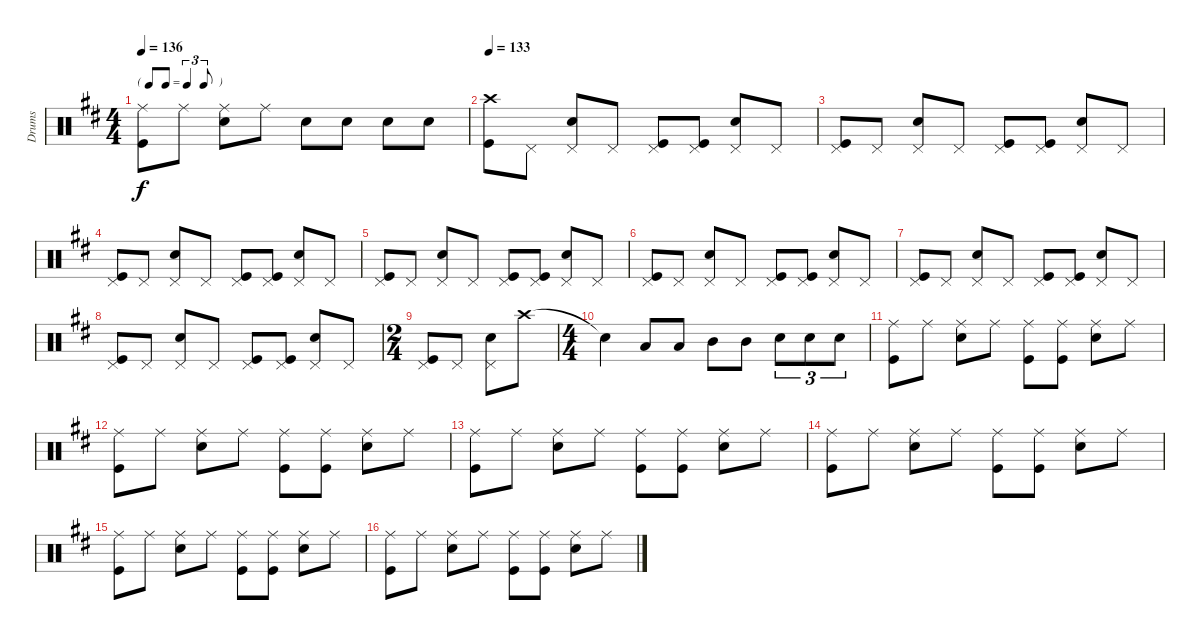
\track ("Drums" "Drums") {instrument percussion}
\staff {score}
\articulation defaults
\ts (4 4)
\tf triplet8th
\tempo 136
\clef neutral
\ks d
("Ride (middle)" "Kick (hit)").8{dy f} "Ride (middle)".8 ("Ride (middle)" "Snare (hit) 2").8 "Ride (middle)".8 "Snare (hit) 2".8 "Snare (hit) 2".8 "Snare (hit) 2".8 "Snare (hit) 2".8 |
\tempo 133
("Crash high (hit)" "Kick (hit)").8 "Pedal Hi-Hat (hit)".8 ("Pedal Hi-Hat (hit)" "Snare (hit) 2").8 "Pedal Hi-Hat (hit)".8 ("Pedal Hi-Hat (hit)" "Kick (hit)").8 ("Pedal Hi-Hat (hit)" "Kick (hit)").8 ("Pedal Hi-Hat (hit)" "Snare (hit) 2").8 "Pedal Hi-Hat (hit)".8 |
("Pedal Hi-Hat (hit)" "Kick (hit)").8 "Pedal Hi-Hat (hit)".8 ("Pedal Hi-Hat (hit)" "Snare (hit) 2").8 "Pedal Hi-Hat (hit)".8 ("Pedal Hi-Hat (hit)" "Kick (hit)").8 ("Pedal Hi-Hat (hit)" "Kick (hit)").8 ("Pedal Hi-Hat (hit)" "Snare (hit) 2").8 "Pedal Hi-Hat (hit)".8 |
("Pedal Hi-Hat (hit)" "Kick (hit)").8 "Pedal Hi-Hat (hit)".8 ("Pedal Hi-Hat (hit)" "Snare (hit) 2").8 "Pedal Hi-Hat (hit)".8 ("Pedal Hi-Hat (hit)" "Kick (hit)").8 ("Pedal Hi-Hat (hit)" "Kick (hit)").8 ("Pedal Hi-Hat (hit)" "Snare (hit) 2").8 "Pedal Hi-Hat (hit)".8 |
("Pedal Hi-Hat (hit)" "Kick (hit)").8 "Pedal Hi-Hat (hit)".8 ("Pedal Hi-Hat (hit)" "Snare (hit) 2").8 "Pedal Hi-Hat (hit)".8 ("Pedal Hi-Hat (hit)" "Kick (hit)").8 ("Pedal Hi-Hat (hit)" "Kick (hit)").8 ("Pedal Hi-Hat (hit)" "Snare (hit) 2").8 "Pedal Hi-Hat (hit)".8 |
("Pedal Hi-Hat (hit)" "Kick (hit)").8 "Pedal Hi-Hat (hit)".8 ("Pedal Hi-Hat (hit)" "Snare (hit) 2").8 "Pedal Hi-Hat (hit)".8 ("Pedal Hi-Hat (hit)" "Kick (hit)").8 ("Pedal Hi-Hat (hit)" "Kick (hit)").8 ("Pedal Hi-Hat (hit)" "Snare (hit) 2").8 "Pedal Hi-Hat (hit)".8 |
("Pedal Hi-Hat (hit)" "Kick (hit)").8 "Pedal Hi-Hat (hit)".8 ("Pedal Hi-Hat (hit)" "Snare (hit) 2").8 "Pedal Hi-Hat (hit)".8 ("Pedal Hi-Hat (hit)" "Kick (hit)").8 ("Pedal Hi-Hat (hit)" "Kick (hit)").8 ("Pedal Hi-Hat (hit)" "Snare (hit) 2").8 "Pedal Hi-Hat (hit)".8 |
("Pedal Hi-Hat (hit)" "Kick (hit)").8 "Pedal Hi-Hat (hit)".8 ("Pedal Hi-Hat (hit)" "Snare (hit) 2").8 "Pedal Hi-Hat (hit)".8 ("Pedal Hi-Hat (hit)" "Kick (hit)").8 ("Pedal Hi-Hat (hit)" "Kick (hit)").8 ("Pedal Hi-Hat (hit)" "Snare (hit) 2").8 "Pedal Hi-Hat (hit)".8 |
\ts (2 4)
("Pedal Hi-Hat (hit)" "Kick (hit)").8 "Pedal Hi-Hat (hit)".8 ("Pedal Hi-Hat (hit)" "Snare (hit) 2").8 "Crash high (hit)".8 |
\ts (4 4)
"Snare (hit)"{t}.4 "Low Tom (hit)".8 "Low Tom (hit)".8 "Mid Tom (hit)".8 "Mid Tom (hit)".8 "Snare (hit) 2".8{tu (3 2)} "Snare (hit) 2".8{tu (3 2)} "Snare (hit) 2".8{tu (3 2)} |
("Ride (middle)" "Kick (hit)").8 "Ride (middle)".8 ("Ride (middle)" "Snare (hit) 2").8 "Ride (middle)".8 ("Ride (middle)" "Kick (hit)").8 ("Ride (middle)" "Kick (hit)").8 ("Ride (middle)" "Snare (hit) 2").8 "Ride (middle)".8 |
("Ride (middle)" "Kick (hit)").8 "Ride (middle)".8 ("Ride (middle)" "Snare (hit) 2").8 "Ride (middle)".8 ("Ride (middle)" "Kick (hit)").8 ("Ride (middle)" "Kick (hit)").8 ("Ride (middle)" "Snare (hit) 2").8 "Ride (middle)".8 |
("Ride (middle)" "Kick (hit)").8 "Ride (middle)".8 ("Ride (middle)" "Snare (hit) 2").8 "Ride (middle)".8 ("Ride (middle)" "Kick (hit)").8 ("Ride (middle)" "Kick (hit)").8 ("Ride (middle)" "Snare (hit) 2").8 "Ride (middle)".8 |
("Ride (middle)" "Kick (hit)").8 "Ride (middle)".8 ("Ride (middle)" "Snare (hit) 2").8 "Ride (middle)".8 ("Ride (middle)" "Kick (hit)").8 ("Ride (middle)" "Kick (hit)").8 ("Ride (middle)" "Snare (hit) 2").8 "Ride (middle)".8 |
("Ride (middle)" "Kick (hit)").8 "Ride (middle)".8 ("Ride (middle)" "Snare (hit) 2").8 "Ride (middle)".8 ("Ride (middle)" "Kick (hit)").8 ("Ride (middle)" "Kick (hit)").8 ("Ride (middle)" "Snare (hit) 2").8 "Ride (middle)".8 |
("Ride (middle)" "Kick (hit)").8 "Ride (middle)".8 ("Ride (middle)" "Snare (hit) 2").8 "Ride (middle)".8 ("Ride (middle)" "Kick (hit)").8 ("Ride (middle)" "Kick (hit)").8 ("Ride (middle)" "Snare (hit) 2").8 "Ride (middle)".8
